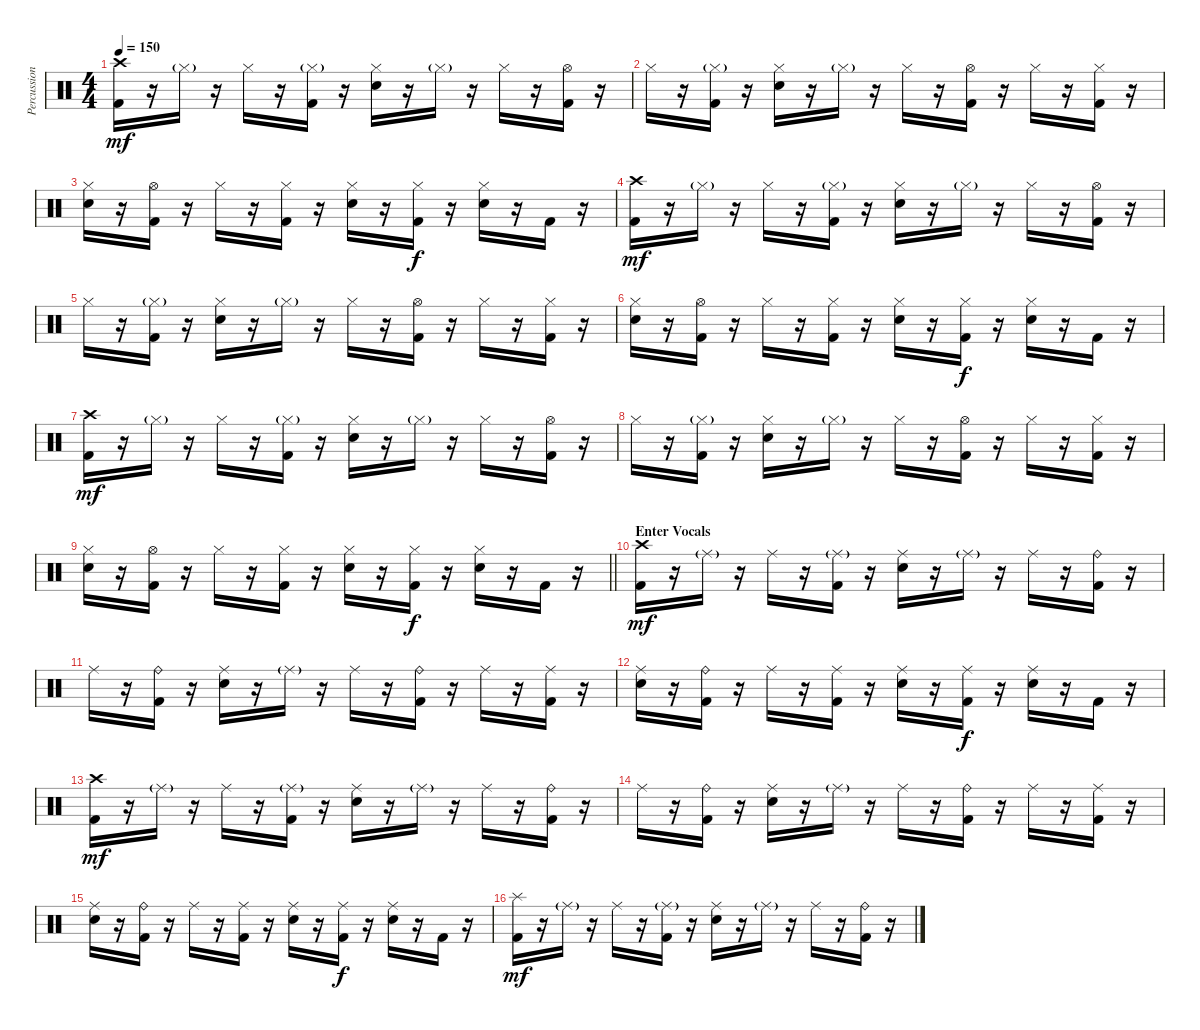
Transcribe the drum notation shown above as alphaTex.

\track ("Percussion" "Percussion") {instrument percussion}
\staff {score}
\articulation defaults
\ts (4 4)
\tempo 150
\clef neutral
\ks c
("Crash high (hit)" "Kick (hit) 2").16{dy mf} r.16 "Hi-Hat (closed)"{g}.16 r.16 "Hi-Hat (closed)".16 r.16 ("Hi-Hat (closed)"{g} "Kick (hit) 2").16 r.16 ("Hi-Hat (closed)" "Snare (hit) 2").16 r.16 "Hi-Hat (closed)"{g}.16 r.16 "Hi-Hat (closed)".16 r.16 ("Hi-Hat (open)" "Kick (hit) 2").16 r.16 |
"Hi-Hat (closed)".16 r.16 ("Hi-Hat (closed)"{g} "Kick (hit) 2").16 r.16 ("Hi-Hat (closed)" "Snare (hit) 2").16 r.16 "Hi-Hat (closed)"{g}.16 r.16 "Hi-Hat (closed)".16 r.16 ("Hi-Hat (open)" "Kick (hit) 2").16 r.16 "Hi-Hat (closed)".16 r.16 ("Hi-Hat (closed)" "Kick (hit) 2").16 r.16 |
("Hi-Hat (closed)" "Snare (hit) 2").16 r.16 ("Hi-Hat (open)" "Kick (hit) 2").16 r.16 "Hi-Hat (closed)".16 r.16 ("Hi-Hat (closed)" "Kick (hit) 2").16 r.16 ("Hi-Hat (closed)" "Snare (hit) 2").16 r.16 ("Hi-Hat (closed)" "Kick (hit) 2").16{dy f} r.16 ("Hi-Hat (closed)" "Snare (hit) 2").16 r.16 "Kick (hit) 2".16 r.16 |
("Crash high (hit)" "Kick (hit) 2").16{dy mf} r.16 "Hi-Hat (closed)"{g}.16 r.16 "Hi-Hat (closed)".16 r.16 ("Hi-Hat (closed)"{g} "Kick (hit) 2").16 r.16 ("Hi-Hat (closed)" "Snare (hit) 2").16 r.16 "Hi-Hat (closed)"{g}.16 r.16 "Hi-Hat (closed)".16 r.16 ("Hi-Hat (open)" "Kick (hit) 2").16 r.16 |
"Hi-Hat (closed)".16 r.16 ("Hi-Hat (closed)"{g} "Kick (hit) 2").16 r.16 ("Hi-Hat (closed)" "Snare (hit) 2").16 r.16 "Hi-Hat (closed)"{g}.16 r.16 "Hi-Hat (closed)".16 r.16 ("Hi-Hat (open)" "Kick (hit) 2").16 r.16 "Hi-Hat (closed)".16 r.16 ("Hi-Hat (closed)" "Kick (hit) 2").16 r.16 |
("Hi-Hat (closed)" "Snare (hit) 2").16 r.16 ("Hi-Hat (open)" "Kick (hit) 2").16 r.16 "Hi-Hat (closed)".16 r.16 ("Hi-Hat (closed)" "Kick (hit) 2").16 r.16 ("Hi-Hat (closed)" "Snare (hit) 2").16 r.16 ("Hi-Hat (closed)" "Kick (hit) 2").16{dy f} r.16 ("Hi-Hat (closed)" "Snare (hit) 2").16 r.16 "Kick (hit) 2".16 r.16 |
("Crash high (hit)" "Kick (hit) 2").16{dy mf} r.16 "Hi-Hat (closed)"{g}.16 r.16 "Hi-Hat (closed)".16 r.16 ("Hi-Hat (closed)"{g} "Kick (hit) 2").16 r.16 ("Hi-Hat (closed)" "Snare (hit) 2").16 r.16 "Hi-Hat (closed)"{g}.16 r.16 "Hi-Hat (closed)".16 r.16 ("Hi-Hat (open)" "Kick (hit) 2").16 r.16 |
"Hi-Hat (closed)".16 r.16 ("Hi-Hat (closed)"{g} "Kick (hit) 2").16 r.16 ("Hi-Hat (closed)" "Snare (hit) 2").16 r.16 "Hi-Hat (closed)"{g}.16 r.16 "Hi-Hat (closed)".16 r.16 ("Hi-Hat (open)" "Kick (hit) 2").16 r.16 "Hi-Hat (closed)".16 r.16 ("Hi-Hat (closed)" "Kick (hit) 2").16 r.16 |
\barLineRight lightlight
("Hi-Hat (closed)" "Snare (hit) 2").16 r.16 ("Hi-Hat (open)" "Kick (hit) 2").16 r.16 "Hi-Hat (closed)".16 r.16 ("Hi-Hat (closed)" "Kick (hit) 2").16 r.16 ("Hi-Hat (closed)" "Snare (hit) 2").16 r.16 ("Hi-Hat (closed)" "Kick (hit) 2").16{dy f} r.16 ("Hi-Hat (closed)" "Snare (hit) 2").16 r.16 "Kick (hit) 2".16 r.16 |
\section ("" "Enter Vocals")
("Crash high (hit)" "Kick (hit) 2").16{dy mf} r.16 "Ride (middle)"{g}.16 r.16 "Ride (middle)".16 r.16 ("Ride (middle)"{g} "Kick (hit) 2").16 r.16 ("Ride (middle)" "Snare (hit) 2").16 r.16 "Ride (middle)"{g}.16 r.16 "Ride (middle)".16 r.16 ("Ride (bell)" "Kick (hit) 2").16 r.16 |
"Ride (middle)".16 r.16 ("Ride (bell)" "Kick (hit) 2").16 r.16 ("Ride (middle)" "Snare (hit) 2").16 r.16 "Ride (middle)"{g}.16 r.16 "Ride (middle)".16 r.16 ("Ride (bell)" "Kick (hit) 2").16 r.16 "Ride (middle)".16 r.16 ("Ride (middle)" "Kick (hit) 2").16 r.16 |
("Ride (middle)" "Snare (hit) 2").16 r.16 ("Ride (bell)" "Kick (hit) 2").16 r.16 "Ride (middle)".16 r.16 ("Ride (middle)" "Kick (hit) 2").16 r.16 ("Ride (middle)" "Snare (hit) 2").16 r.16 ("Ride (middle)" "Kick (hit) 2").16{dy f} r.16 ("Ride (middle)" "Snare (hit) 2").16 r.16 "Kick (hit) 2".16 r.16 |
("Crash high (hit)" "Kick (hit) 2").16{dy mf} r.16 "Ride (middle)"{g}.16 r.16 "Ride (middle)".16 r.16 ("Ride (middle)"{g} "Kick (hit) 2").16 r.16 ("Ride (middle)" "Snare (hit) 2").16 r.16 "Ride (middle)"{g}.16 r.16 "Ride (middle)".16 r.16 ("Ride (bell)" "Kick (hit) 2").16 r.16 |
"Ride (middle)".16 r.16 ("Ride (bell)" "Kick (hit) 2").16 r.16 ("Ride (middle)" "Snare (hit) 2").16 r.16 "Ride (middle)"{g}.16 r.16 "Ride (middle)".16 r.16 ("Ride (bell)" "Kick (hit) 2").16 r.16 "Ride (middle)".16 r.16 ("Ride (middle)" "Kick (hit) 2").16 r.16 |
("Ride (middle)" "Snare (hit) 2").16 r.16 ("Ride (bell)" "Kick (hit) 2").16 r.16 "Ride (middle)".16 r.16 ("Ride (middle)" "Kick (hit) 2").16 r.16 ("Ride (middle)" "Snare (hit) 2").16 r.16 ("Ride (middle)" "Kick (hit) 2").16{dy f} r.16 ("Ride (middle)" "Snare (hit) 2").16 r.16 "Kick (hit) 2".16 r.16 |
("Splash (hit)" "Kick (hit) 2").16{dy mf} r.16 "Ride (middle)"{g}.16 r.16 "Ride (middle)".16 r.16 ("Ride (middle)"{g} "Kick (hit) 2").16 r.16 ("Ride (middle)" "Snare (hit) 2").16 r.16 "Ride (middle)"{g}.16 r.16 "Ride (middle)".16 r.16 ("Ride (bell)" "Kick (hit) 2").16 r.16
